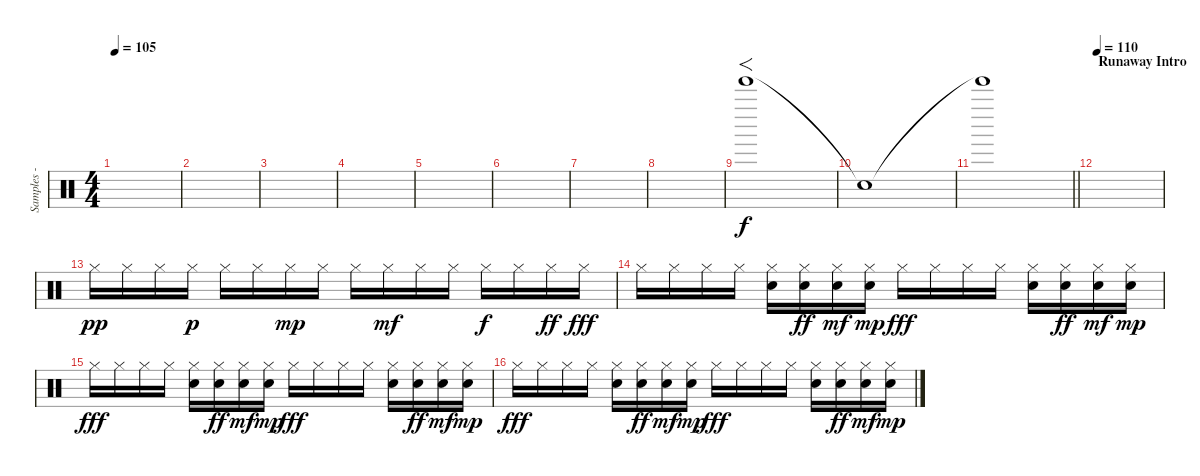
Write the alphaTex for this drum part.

\track ("Samples - Joe Hahn" "Samples - ") {instrument percussion}
\staff {score}
\articulation defaults
\ts (4 4)
\tempo 105
\clef neutral
\ks c
|
|
|
|
|
|
|
|
"Tinkle Bell (hit)".1{f volume 9} |
"Snare (hit)"{t}.1 |
\barLineRight lightlight "Tinkle Bell (hit)"{t}.1
|
\section ("" "Runaway Intro")
\tempo 110
|
"Hi-Hat (closed)".16{dy pp volume 13} "Hi-Hat (closed)".16 "Hi-Hat (closed)".16 "Hi-Hat (closed)".16{dy p} "Hi-Hat (closed)".16 "Hi-Hat (closed)".16 "Hi-Hat (closed)".16{dy mp} "Hi-Hat (closed)".16 "Hi-Hat (closed)".16 "Hi-Hat (closed)".16{dy mf} "Hi-Hat (closed)".16 "Hi-Hat (closed)".16 "Hi-Hat (closed)".16{dy f} "Hi-Hat (closed)".16 "Hi-Hat (closed)".16{dy ff} "Hi-Hat (closed)".16{dy fff} |
"Hi-Hat (closed)".16 "Hi-Hat (closed)".16 "Hi-Hat (closed)".16 "Hi-Hat (closed)".16 ("Hi-Hat (closed)" "Electric Snare (hit)").16 ("Hi-Hat (closed)" "Electric Snare (hit)").16{dy ff} ("Hi-Hat (closed)" "Electric Snare (hit)").16{dy mf} ("Hi-Hat (closed)" "Electric Snare (hit)").16{dy mp} "Hi-Hat (closed)".16{dy fff} "Hi-Hat (closed)".16 "Hi-Hat (closed)".16 "Hi-Hat (closed)".16 ("Hi-Hat (closed)" "Electric Snare (hit)").16 ("Hi-Hat (closed)" "Electric Snare (hit)").16{dy ff} ("Hi-Hat (closed)" "Electric Snare (hit)").16{dy mf} ("Hi-Hat (closed)" "Electric Snare (hit)").16{dy mp} |
"Hi-Hat (closed)".16{dy fff} "Hi-Hat (closed)".16 "Hi-Hat (closed)".16 "Hi-Hat (closed)".16 ("Hi-Hat (closed)" "Electric Snare (hit)").16 ("Hi-Hat (closed)" "Electric Snare (hit)").16{dy ff} ("Hi-Hat (closed)" "Electric Snare (hit)").16{dy mf} ("Hi-Hat (closed)" "Electric Snare (hit)").16{dy mp} "Hi-Hat (closed)".16{dy fff} "Hi-Hat (closed)".16 "Hi-Hat (closed)".16 "Hi-Hat (closed)".16 ("Hi-Hat (closed)" "Electric Snare (hit)").16 ("Hi-Hat (closed)" "Electric Snare (hit)").16{dy ff} ("Hi-Hat (closed)" "Electric Snare (hit)").16{dy mf} ("Hi-Hat (closed)" "Electric Snare (hit)").16{dy mp} |
"Hi-Hat (closed)".16{dy fff} "Hi-Hat (closed)".16 "Hi-Hat (closed)".16 "Hi-Hat (closed)".16 ("Hi-Hat (closed)" "Electric Snare (hit)").16 ("Hi-Hat (closed)" "Electric Snare (hit)").16{dy ff} ("Hi-Hat (closed)" "Electric Snare (hit)").16{dy mf} ("Hi-Hat (closed)" "Electric Snare (hit)").16{dy mp} "Hi-Hat (closed)".16{dy fff} "Hi-Hat (closed)".16 "Hi-Hat (closed)".16 "Hi-Hat (closed)".16 ("Hi-Hat (closed)" "Electric Snare (hit)").16 ("Hi-Hat (closed)" "Electric Snare (hit)").16{dy ff} ("Hi-Hat (closed)" "Electric Snare (hit)").16{dy mf} ("Hi-Hat (closed)" "Electric Snare (hit)").16{dy mp}
